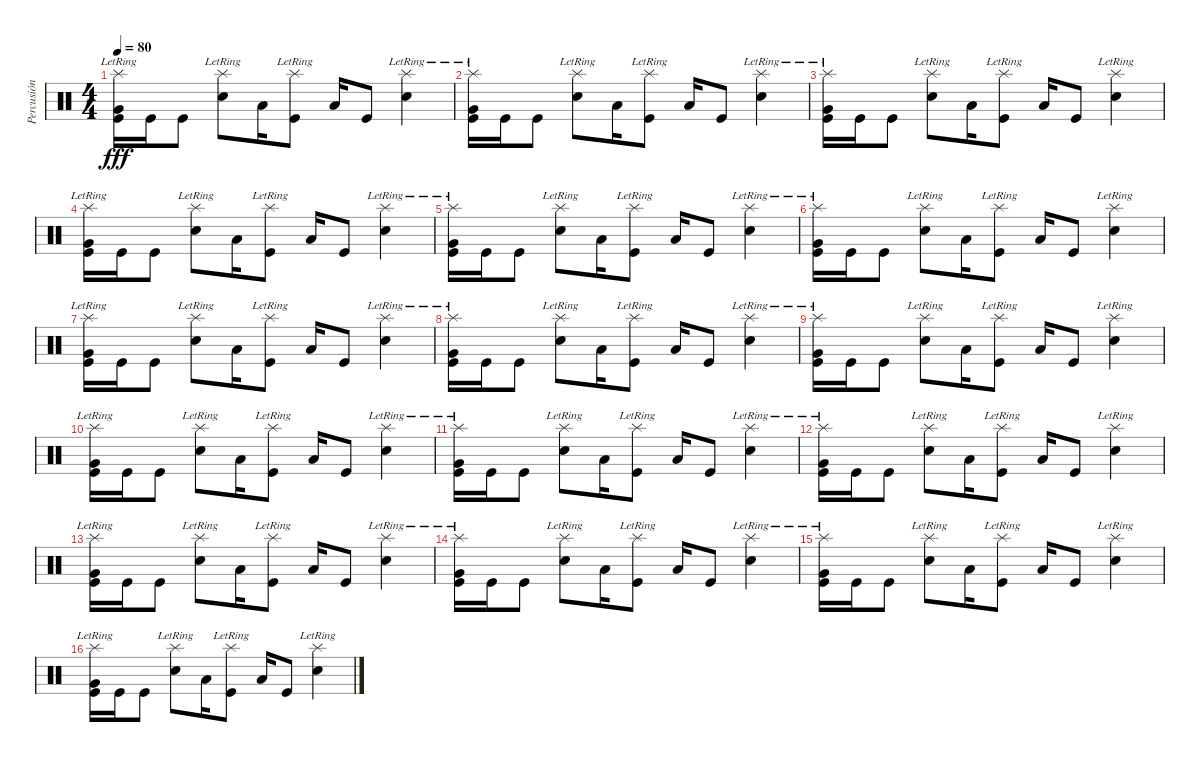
\track ("Percusión" "Percusión") {instrument percussion}
\staff {score}
\articulation defaults
\ts (4 4)
\tempo 80
\clef neutral
\ks c
("Kick (hit)" "Very Low Tom (hit)" "Splash (hit)"{lr}).16{dy fff} "Kick (hit)".16 "Kick (hit)".8 ("Snare (hit) 2" "Splash (hit)"{lr}).8 "Low Floor Tom (hit)".16 ("Kick (hit)" "Splash (hit)"{lr}).8 "Low Floor Tom (hit)".16 "Kick (hit)".8 ("Snare (hit) 2" "Splash (hit)"{lr}).4 |
("Kick (hit)" "Very Low Tom (hit)" "Splash (hit)"{lr}).16 "Kick (hit)".16 "Kick (hit)".8 ("Snare (hit) 2" "Splash (hit)"{lr}).8 "Low Floor Tom (hit)".16 ("Kick (hit)" "Splash (hit)"{lr}).8 "Low Floor Tom (hit)".16 "Kick (hit)".8 ("Snare (hit) 2" "Splash (hit)"{lr}).4 |
("Kick (hit)" "Very Low Tom (hit)" "Splash (hit)"{lr}).16 "Kick (hit)".16 "Kick (hit)".8 ("Snare (hit) 2" "Splash (hit)"{lr}).8 "Low Floor Tom (hit)".16 ("Kick (hit)" "Splash (hit)"{lr}).8 "Low Floor Tom (hit)".16 "Kick (hit)".8 ("Snare (hit) 2" "Splash (hit)"{lr}).4 |
("Kick (hit)" "Very Low Tom (hit)" "Splash (hit)"{lr}).16 "Kick (hit)".16 "Kick (hit)".8 ("Snare (hit) 2" "Splash (hit)"{lr}).8 "Low Floor Tom (hit)".16 ("Kick (hit)" "Splash (hit)"{lr}).8 "Low Floor Tom (hit)".16 "Kick (hit)".8 ("Snare (hit) 2" "Splash (hit)"{lr}).4 |
("Kick (hit)" "Very Low Tom (hit)" "Splash (hit)"{lr}).16 "Kick (hit)".16 "Kick (hit)".8 ("Snare (hit) 2" "Splash (hit)"{lr}).8 "Low Floor Tom (hit)".16 ("Kick (hit)" "Splash (hit)"{lr}).8 "Low Floor Tom (hit)".16 "Kick (hit)".8 ("Snare (hit) 2" "Splash (hit)"{lr}).4 |
("Kick (hit)" "Very Low Tom (hit)" "Splash (hit)"{lr}).16 "Kick (hit)".16 "Kick (hit)".8 ("Snare (hit) 2" "Splash (hit)"{lr}).8 "Low Floor Tom (hit)".16 ("Kick (hit)" "Splash (hit)"{lr}).8 "Low Floor Tom (hit)".16 "Kick (hit)".8 ("Snare (hit) 2" "Splash (hit)"{lr}).4 |
("Kick (hit)" "Very Low Tom (hit)" "Splash (hit)"{lr}).16 "Kick (hit)".16 "Kick (hit)".8 ("Snare (hit) 2" "Splash (hit)"{lr}).8 "Low Floor Tom (hit)".16 ("Kick (hit)" "Splash (hit)"{lr}).8 "Low Floor Tom (hit)".16 "Kick (hit)".8 ("Snare (hit) 2" "Splash (hit)"{lr}).4 |
("Kick (hit)" "Very Low Tom (hit)" "Splash (hit)"{lr}).16 "Kick (hit)".16 "Kick (hit)".8 ("Snare (hit) 2" "Splash (hit)"{lr}).8 "Low Floor Tom (hit)".16 ("Kick (hit)" "Splash (hit)"{lr}).8 "Low Floor Tom (hit)".16 "Kick (hit)".8 ("Snare (hit) 2" "Splash (hit)"{lr}).4 |
("Kick (hit)" "Very Low Tom (hit)" "Splash (hit)"{lr}).16 "Kick (hit)".16 "Kick (hit)".8 ("Snare (hit) 2" "Splash (hit)"{lr}).8 "Low Floor Tom (hit)".16 ("Kick (hit)" "Splash (hit)"{lr}).8 "Low Floor Tom (hit)".16 "Kick (hit)".8 ("Snare (hit) 2" "Splash (hit)"{lr}).4 |
("Kick (hit)" "Very Low Tom (hit)" "Splash (hit)"{lr}).16 "Kick (hit)".16 "Kick (hit)".8 ("Snare (hit) 2" "Splash (hit)"{lr}).8 "Low Floor Tom (hit)".16 ("Kick (hit)" "Splash (hit)"{lr}).8 "Low Floor Tom (hit)".16 "Kick (hit)".8 ("Snare (hit) 2" "Splash (hit)"{lr}).4 |
("Kick (hit)" "Very Low Tom (hit)" "Splash (hit)"{lr}).16 "Kick (hit)".16 "Kick (hit)".8 ("Snare (hit) 2" "Splash (hit)"{lr}).8 "Low Floor Tom (hit)".16 ("Kick (hit)" "Splash (hit)"{lr}).8 "Low Floor Tom (hit)".16 "Kick (hit)".8 ("Snare (hit) 2" "Splash (hit)"{lr}).4 |
("Kick (hit)" "Very Low Tom (hit)" "Splash (hit)"{lr}).16 "Kick (hit)".16 "Kick (hit)".8 ("Snare (hit) 2" "Splash (hit)"{lr}).8 "Low Floor Tom (hit)".16 ("Kick (hit)" "Splash (hit)"{lr}).8 "Low Floor Tom (hit)".16 "Kick (hit)".8 ("Snare (hit) 2" "Splash (hit)"{lr}).4 |
("Kick (hit)" "Very Low Tom (hit)" "Splash (hit)"{lr}).16 "Kick (hit)".16 "Kick (hit)".8 ("Snare (hit) 2" "Splash (hit)"{lr}).8 "Low Floor Tom (hit)".16 ("Kick (hit)" "Splash (hit)"{lr}).8 "Low Floor Tom (hit)".16 "Kick (hit)".8 ("Snare (hit) 2" "Splash (hit)"{lr}).4 |
("Kick (hit)" "Very Low Tom (hit)" "Splash (hit)"{lr}).16 "Kick (hit)".16 "Kick (hit)".8 ("Snare (hit) 2" "Splash (hit)"{lr}).8 "Low Floor Tom (hit)".16 ("Kick (hit)" "Splash (hit)"{lr}).8 "Low Floor Tom (hit)".16 "Kick (hit)".8 ("Snare (hit) 2" "Splash (hit)"{lr}).4 |
("Kick (hit)" "Very Low Tom (hit)" "Splash (hit)"{lr}).16 "Kick (hit)".16 "Kick (hit)".8 ("Snare (hit) 2" "Splash (hit)"{lr}).8 "Low Floor Tom (hit)".16 ("Kick (hit)" "Splash (hit)"{lr}).8 "Low Floor Tom (hit)".16 "Kick (hit)".8 ("Snare (hit) 2" "Splash (hit)"{lr}).4 |
("Kick (hit)" "Very Low Tom (hit)" "Splash (hit)"{lr}).16 "Kick (hit)".16 "Kick (hit)".8 ("Snare (hit) 2" "Splash (hit)"{lr}).8 "Low Floor Tom (hit)".16 ("Kick (hit)" "Splash (hit)"{lr}).8 "Low Floor Tom (hit)".16 "Kick (hit)".8 ("Snare (hit) 2" "Splash (hit)"{lr}).4
